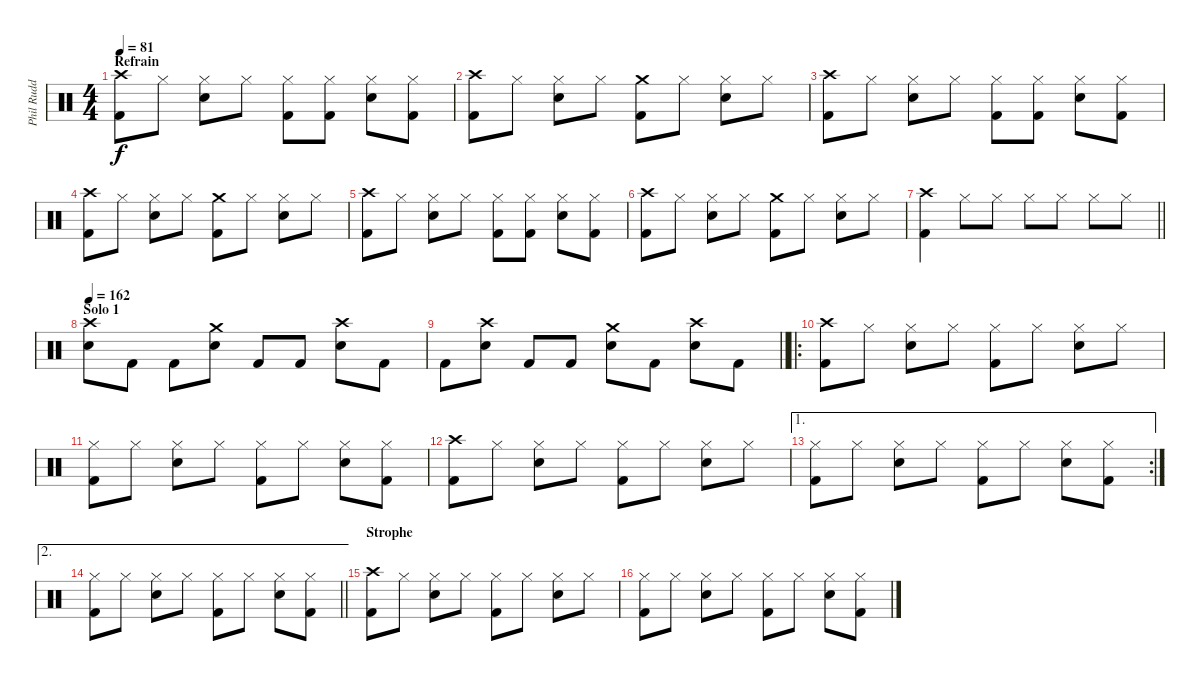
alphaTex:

\track ("Phil Rudd" "Phil Rudd") {instrument percussion}
\staff {score}
\articulation defaults
\ts (4 4)
\section ("" "Refrain")
\tempo 81
\clef neutral
\ks c
("Crash high (hit)" "Kick (hit) 2").8{dy f} "Hi-Hat (closed)".8 ("Hi-Hat (closed)" "Snare (hit) 2").8 "Hi-Hat (closed)".8 ("Hi-Hat (closed)" "Kick (hit) 2").8 ("Hi-Hat (closed)" "Kick (hit) 2").8 ("Hi-Hat (closed)" "Snare (hit) 2").8 ("Hi-Hat (closed)" "Kick (hit) 2").8 |
("Crash high (hit)" "Kick (hit) 2").8 "Hi-Hat (closed)".8 ("Hi-Hat (closed)" "Snare (hit) 2").8 "Hi-Hat (closed)".8 ("Crash medium (hit)" "Kick (hit) 2").8 "Hi-Hat (closed)".8 ("Hi-Hat (closed)" "Snare (hit) 2").8 "Hi-Hat (closed)".8 |
("Crash high (hit)" "Kick (hit) 2").8 "Hi-Hat (closed)".8 ("Hi-Hat (closed)" "Snare (hit) 2").8 "Hi-Hat (closed)".8 ("Hi-Hat (closed)" "Kick (hit) 2").8 ("Hi-Hat (closed)" "Kick (hit) 2").8 ("Hi-Hat (closed)" "Snare (hit) 2").8 ("Hi-Hat (closed)" "Kick (hit) 2").8 |
("Crash high (hit)" "Kick (hit) 2").8 "Hi-Hat (closed)".8 ("Hi-Hat (closed)" "Snare (hit) 2").8 "Hi-Hat (closed)".8 ("Crash medium (hit)" "Kick (hit) 2").8 "Hi-Hat (closed)".8 ("Hi-Hat (closed)" "Snare (hit) 2").8 "Hi-Hat (closed)".8 |
("Crash high (hit)" "Kick (hit) 2").8 "Hi-Hat (closed)".8 ("Hi-Hat (closed)" "Snare (hit) 2").8 "Hi-Hat (closed)".8 ("Hi-Hat (closed)" "Kick (hit) 2").8 ("Hi-Hat (closed)" "Kick (hit) 2").8 ("Hi-Hat (closed)" "Snare (hit) 2").8 ("Hi-Hat (closed)" "Kick (hit) 2").8 |
("Crash high (hit)" "Kick (hit) 2").8 "Hi-Hat (closed)".8 ("Hi-Hat (closed)" "Snare (hit) 2").8 "Hi-Hat (closed)".8 ("Crash medium (hit)" "Kick (hit) 2").8 "Hi-Hat (closed)".8 ("Hi-Hat (closed)" "Snare (hit) 2").8 "Hi-Hat (closed)".8 |
\barLineRight lightlight
("Crash high (hit)" "Kick (hit) 2").4 "Hi-Hat (closed)".8 "Hi-Hat (closed)".8 "Hi-Hat (closed)".8 "Hi-Hat (closed)".8 "Hi-Hat (closed)".8 "Hi-Hat (closed)".8 |
\section ("" "Solo 1")
\tempo 162
("Crash high (hit)" "Snare (hit) 2").8 "Kick (hit) 2".8 "Kick (hit) 2".8 ("Crash medium (hit)" "Snare (hit) 2").8 "Kick (hit) 2".8 "Kick (hit) 2".8 ("Crash high (hit)" "Snare (hit) 2").8 "Kick (hit) 2".8 |
\barLineRight lightlight "Kick (hit) 2".8
("Crash high (hit)" "Snare (hit) 2").8 "Kick (hit) 2".8 "Kick (hit) 2".8 ("Crash medium (hit)" "Snare (hit) 2").8 "Kick (hit) 2".8 ("Crash high (hit)" "Snare (hit) 2").8 "Kick (hit) 2".8 |
\ro
("Crash high (hit)" "Kick (hit) 2").8 "Hi-Hat (closed)".8 ("Hi-Hat (closed)" "Snare (hit) 2").8 "Hi-Hat (closed)".8 ("Hi-Hat (closed)" "Kick (hit) 2").8 "Hi-Hat (closed)".8 ("Hi-Hat (closed)" "Snare (hit) 2").8 "Hi-Hat (closed)".8 |
("Hi-Hat (closed)" "Kick (hit) 2").8 "Hi-Hat (closed)".8 ("Hi-Hat (closed)" "Snare (hit) 2").8 "Hi-Hat (closed)".8 ("Hi-Hat (closed)" "Kick (hit) 2").8 "Hi-Hat (closed)".8 ("Hi-Hat (closed)" "Snare (hit) 2").8 ("Hi-Hat (closed)" "Kick (hit) 2").8 |
("Crash high (hit)" "Kick (hit) 2").8 "Hi-Hat (closed)".8 ("Hi-Hat (closed)" "Snare (hit) 2").8 "Hi-Hat (closed)".8 ("Hi-Hat (closed)" "Kick (hit) 2").8 "Hi-Hat (closed)".8 ("Hi-Hat (closed)" "Snare (hit) 2").8 "Hi-Hat (closed)".8 |
\ae 1
\rc 2
("Hi-Hat (closed)" "Kick (hit) 2").8 "Hi-Hat (closed)".8 ("Hi-Hat (closed)" "Snare (hit) 2").8 "Hi-Hat (closed)".8 ("Hi-Hat (closed)" "Kick (hit) 2").8 "Hi-Hat (closed)".8 ("Hi-Hat (closed)" "Snare (hit) 2").8 ("Hi-Hat (closed)" "Kick (hit) 2").8 |
\ae 2
\barLineRight lightlight
("Hi-Hat (closed)" "Kick (hit) 2").8 "Hi-Hat (closed)".8 ("Hi-Hat (closed)" "Snare (hit) 2").8 "Hi-Hat (closed)".8 ("Hi-Hat (closed)" "Kick (hit) 2").8 "Hi-Hat (closed)".8 ("Hi-Hat (closed)" "Snare (hit) 2").8 ("Hi-Hat (closed)" "Kick (hit) 2").8 |
\section ("" "Strophe")
("Crash high (hit)" "Kick (hit) 2").8 "Hi-Hat (closed)".8 ("Hi-Hat (closed)" "Snare (hit) 2").8 "Hi-Hat (closed)".8 ("Hi-Hat (closed)" "Kick (hit) 2").8 "Hi-Hat (closed)".8 ("Hi-Hat (closed)" "Snare (hit) 2").8 "Hi-Hat (closed)".8 |
("Hi-Hat (closed)" "Kick (hit) 2").8 "Hi-Hat (closed)".8 ("Hi-Hat (closed)" "Snare (hit) 2").8 "Hi-Hat (closed)".8 ("Hi-Hat (closed)" "Kick (hit) 2").8 "Hi-Hat (closed)".8 ("Hi-Hat (closed)" "Snare (hit) 2").8 ("Hi-Hat (closed)" "Kick (hit) 2").8
